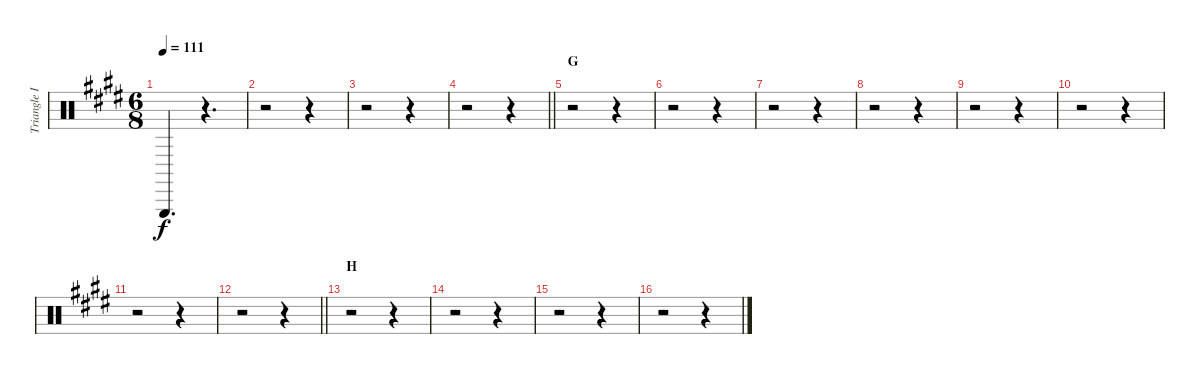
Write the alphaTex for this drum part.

\track ("Triangle II" "Triangle I") {instrument percussion}
\staff {score}
\articulation defaults
\ts (6 8)
\tempo 111
\clef neutral
\ks e "Triangle (hit)".4{d dy f}
r.4{d} |
r.2 r.4 |
r.2 r.4 |
\barLineRight lightlight
r.2 r.4 |
\section ("" "G")
r.2 r.4 |
r.2 r.4 |
r.2 r.4 |
r.2 r.4 |
r.2 r.4 |
r.2 r.4 |
r.2 r.4 |
\barLineRight lightlight
r.2 r.4 |
\section ("" "H")
r.2 r.4 |
r.2 r.4 |
r.2 r.4 |
r.2 r.4
